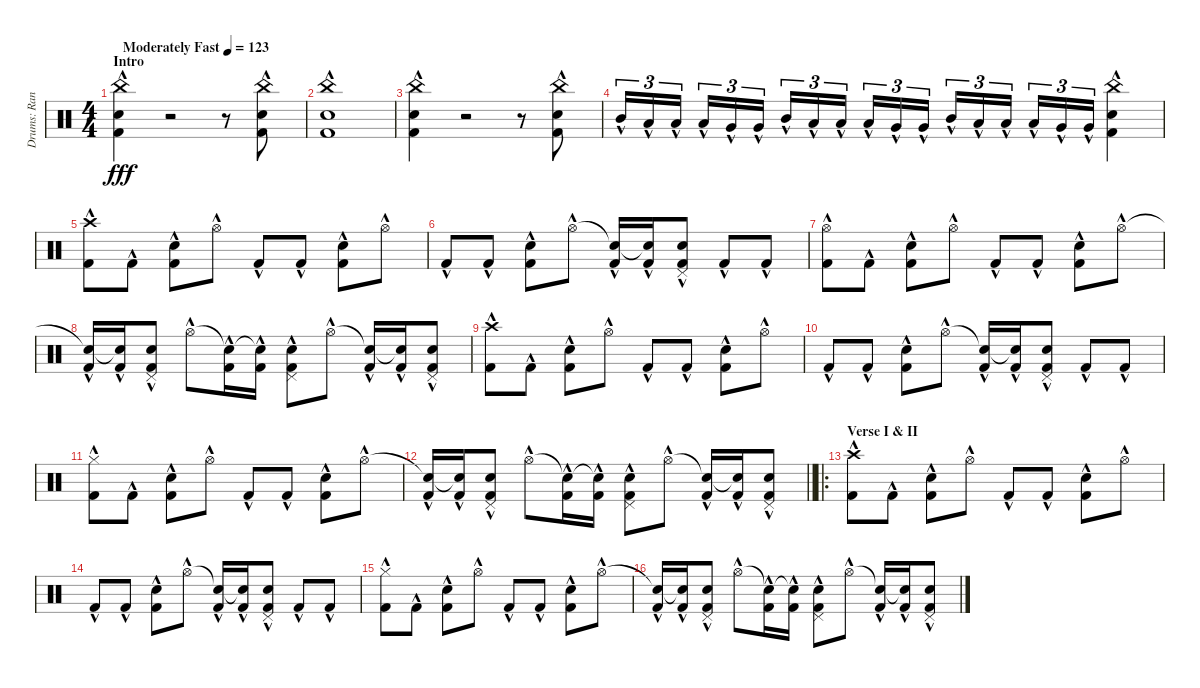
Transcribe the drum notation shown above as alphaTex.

\track ("Drums: Randy" "Drums: Ran") {instrument percussion}
\staff {score}
\articulation defaults
\ts (4 4)
\section ("" "Intro")
\tempo (123 "Moderately Fast")
\clef neutral
\ks c
("China (hit)" "Snare (hit) 2"{hac} "Kick (hit) 2"{hac}).4{dy fff} r.2 r.8 ("China (hit)" "Snare (hit) 2"{hac} "Kick (hit) 2"{hac}).8 |
("China (hit)" "Snare (hit) 2"{hac} "Kick (hit) 2"{hac}).1 |
("China (hit)" "Snare (hit) 2"{hac} "Kick (hit) 2"{hac}).4 r.2 r.8 ("China (hit)" "Snare (hit) 2"{hac} "Kick (hit) 2"{hac}).8 |
"Mid Tom (hit)"{hac}.16{tu (3 2)} "Low Tom (hit)"{hac}.16{tu (3 2)} "Low Tom (hit)"{hac}.16{tu (3 2) beam splitsecondary} "Low Tom (hit)"{hac}.16{tu (3 2)} "Very Low Tom (hit)"{hac}.16{tu (3 2)} "Very Low Tom (hit)"{hac}.16{tu (3 2)} "Mid Tom (hit)"{hac}.16{tu (3 2)} "Low Tom (hit)"{hac}.16{tu (3 2)} "Low Tom (hit)"{hac}.16{tu (3 2) beam splitsecondary} "Low Tom (hit)"{hac}.16{tu (3 2)} "Very Low Tom (hit)"{hac}.16{tu (3 2)} "Very Low Tom (hit)"{hac}.16{tu (3 2)} "Mid Tom (hit)"{hac}.16{tu (3 2)} "Low Tom (hit)"{hac}.16{tu (3 2)} "Low Tom (hit)"{hac}.16{tu (3 2) beam splitsecondary} "Low Tom (hit)"{hac}.16{tu (3 2)} "Very Low Tom (hit)"{hac}.16{tu (3 2)} "Very Low Tom (hit)"{hac}.16{tu (3 2)} ("China (hit)" "Snare (hit) 2"{hac} "Kick (hit) 2"{hac}).4 |
("Crash high (hit)"{hac} "Kick (hit) 2"{hac}).8 "Kick (hit) 2"{hac}.8 ("Snare (hit) 2"{hac} "Kick (hit) 2"{hac}).8 "Hi-Hat (open)"{hac}.8 "Kick (hit) 2"{hac}.8 "Kick (hit) 2"{hac}.8 ("Snare (hit) 2"{hac} "Kick (hit) 2"{hac}).8 "Hi-Hat (open)"{hac}.8 |
"Kick (hit) 2"{hac}.8 "Kick (hit) 2"{hac}.8 ("Snare (hit) 2"{hac} "Kick (hit) 2"{hac}).8 "Hi-Hat (open)"{hac}.8 ("Snare (hit)"{t} "Kick (hit) 2"{hac}).16 ("Snare (hit)"{t} "Kick (hit) 2"{hac}).16 ("Pedal Hi-Hat (hit)"{hac} "Snare (hit) 2"{hac} "Kick (hit) 2"{hac}).8 "Kick (hit) 2"{hac}.8 "Kick (hit) 2"{hac}.8 |
("Hi-Hat (open)" "Kick (hit) 2"{hac}).8 "Kick (hit) 2"{hac}.8 ("Snare (hit) 2"{hac} "Kick (hit) 2"{hac}).8 "Hi-Hat (open)"{hac}.8 "Kick (hit) 2"{hac}.8 "Kick (hit) 2"{hac}.8 ("Snare (hit) 2"{hac} "Kick (hit) 2"{hac}).8 "Hi-Hat (open)"{hac}.8 |
("Snare (hit)"{t} "Kick (hit) 2"{hac}).16 ("Snare (hit)"{t} "Kick (hit) 2"{hac}).16 ("Pedal Hi-Hat (hit)"{hac} "Snare (hit) 2"{hac} "Kick (hit) 2"{hac}).8 "Hi-Hat (open)"{hac}.8 ("Snare (hit)"{t} "Kick (hit) 2"{hac}).16 ("Snare (hit)"{t} "Kick (hit) 2"{hac}).16 ("Pedal Hi-Hat (hit)"{hac} "Snare (hit) 2"{hac} "Kick (hit) 2"{hac}).8 "Hi-Hat (open)"{hac}.8 ("Snare (hit)"{t} "Kick (hit) 2"{hac}).16 ("Snare (hit)"{t} "Kick (hit) 2"{hac}).16 ("Pedal Hi-Hat (hit)"{hac} "Snare (hit) 2"{hac} "Kick (hit) 2"{hac}).8 |
("Crash high (hit)"{hac} "Kick (hit) 2"{hac}).8 "Kick (hit) 2"{hac}.8 ("Snare (hit) 2"{hac} "Kick (hit) 2"{hac}).8 "Hi-Hat (open)"{hac}.8 "Kick (hit) 2"{hac}.8 "Kick (hit) 2"{hac}.8 ("Snare (hit) 2"{hac} "Kick (hit) 2"{hac}).8 "Hi-Hat (open)"{hac}.8 |
"Kick (hit) 2"{hac}.8 "Kick (hit) 2"{hac}.8 ("Snare (hit) 2"{hac} "Kick (hit) 2"{hac}).8 "Hi-Hat (open)"{hac}.8 ("Snare (hit)"{t} "Kick (hit) 2"{hac}).16 ("Snare (hit)"{t} "Kick (hit) 2"{hac}).16 ("Pedal Hi-Hat (hit)"{hac} "Snare (hit) 2"{hac} "Kick (hit) 2"{hac}).8 "Kick (hit) 2"{hac}.8 "Kick (hit) 2"{hac}.8 |
("Hi-Hat (closed)"{hac} "Kick (hit) 2"{hac}).8 "Kick (hit) 2"{hac}.8 ("Snare (hit) 2"{hac} "Kick (hit) 2"{hac}).8 "Hi-Hat (open)"{hac}.8 "Kick (hit) 2"{hac}.8 "Kick (hit) 2"{hac}.8 ("Snare (hit) 2"{hac} "Kick (hit) 2"{hac}).8 "Hi-Hat (open)"{hac}.8 |
\barLineRight lightlight
("Snare (hit)"{t} "Kick (hit) 2"{hac}).16 ("Snare (hit)"{t} "Kick (hit) 2"{hac}).16 ("Pedal Hi-Hat (hit)"{hac} "Snare (hit) 2"{hac} "Kick (hit) 2"{hac}).8 "Hi-Hat (open)"{hac}.8 ("Snare (hit)"{t} "Kick (hit) 2"{hac}).16 ("Snare (hit)"{t} "Kick (hit) 2"{hac}).16 ("Pedal Hi-Hat (hit)"{hac} "Snare (hit) 2"{hac} "Kick (hit) 2"{hac}).8 "Hi-Hat (open)"{hac}.8 ("Snare (hit)"{t} "Kick (hit) 2"{hac}).16 ("Snare (hit)"{t} "Kick (hit) 2"{hac}).16 ("Pedal Hi-Hat (hit)"{hac} "Snare (hit) 2"{hac} "Kick (hit) 2"{hac}).8 |
\ro
\section ("" "Verse I & II")
("Crash high (hit)"{hac} "Kick (hit) 2"{hac}).8 "Kick (hit) 2"{hac}.8 ("Snare (hit) 2"{hac} "Kick (hit) 2"{hac}).8 "Hi-Hat (open)"{hac}.8 "Kick (hit) 2"{hac}.8 "Kick (hit) 2"{hac}.8 ("Snare (hit) 2"{hac} "Kick (hit) 2"{hac}).8 "Hi-Hat (open)"{hac}.8 |
"Kick (hit) 2"{hac}.8 "Kick (hit) 2"{hac}.8 ("Snare (hit) 2"{hac} "Kick (hit) 2"{hac}).8 "Hi-Hat (open)"{hac}.8 ("Snare (hit)"{t} "Kick (hit) 2"{hac}).16 ("Snare (hit)"{t} "Kick (hit) 2"{hac}).16 ("Pedal Hi-Hat (hit)"{hac} "Snare (hit) 2"{hac} "Kick (hit) 2"{hac}).8 "Kick (hit) 2"{hac}.8 "Kick (hit) 2"{hac}.8 |
("Hi-Hat (closed)"{hac} "Kick (hit) 2"{hac}).8 "Kick (hit) 2"{hac}.8 ("Snare (hit) 2"{hac} "Kick (hit) 2"{hac}).8 "Hi-Hat (open)"{hac}.8 "Kick (hit) 2"{hac}.8 "Kick (hit) 2"{hac}.8 ("Snare (hit) 2"{hac} "Kick (hit) 2"{hac}).8 "Hi-Hat (open)"{hac}.8 |
("Snare (hit)"{t} "Kick (hit) 2"{hac}).16 ("Snare (hit)"{t} "Kick (hit) 2"{hac}).16 ("Pedal Hi-Hat (hit)"{hac} "Snare (hit) 2"{hac} "Kick (hit) 2"{hac}).8 "Hi-Hat (open)"{hac}.8 ("Snare (hit)"{t} "Kick (hit) 2"{hac}).16 ("Snare (hit)"{t} "Kick (hit) 2"{hac}).16 ("Pedal Hi-Hat (hit)"{hac} "Snare (hit) 2"{hac} "Kick (hit) 2"{hac}).8 "Hi-Hat (open)"{hac}.8 ("Snare (hit)"{t} "Kick (hit) 2"{hac}).16 ("Snare (hit)"{t} "Kick (hit) 2"{hac}).16 ("Pedal Hi-Hat (hit)"{hac} "Snare (hit) 2"{hac} "Kick (hit) 2"{hac}).8
